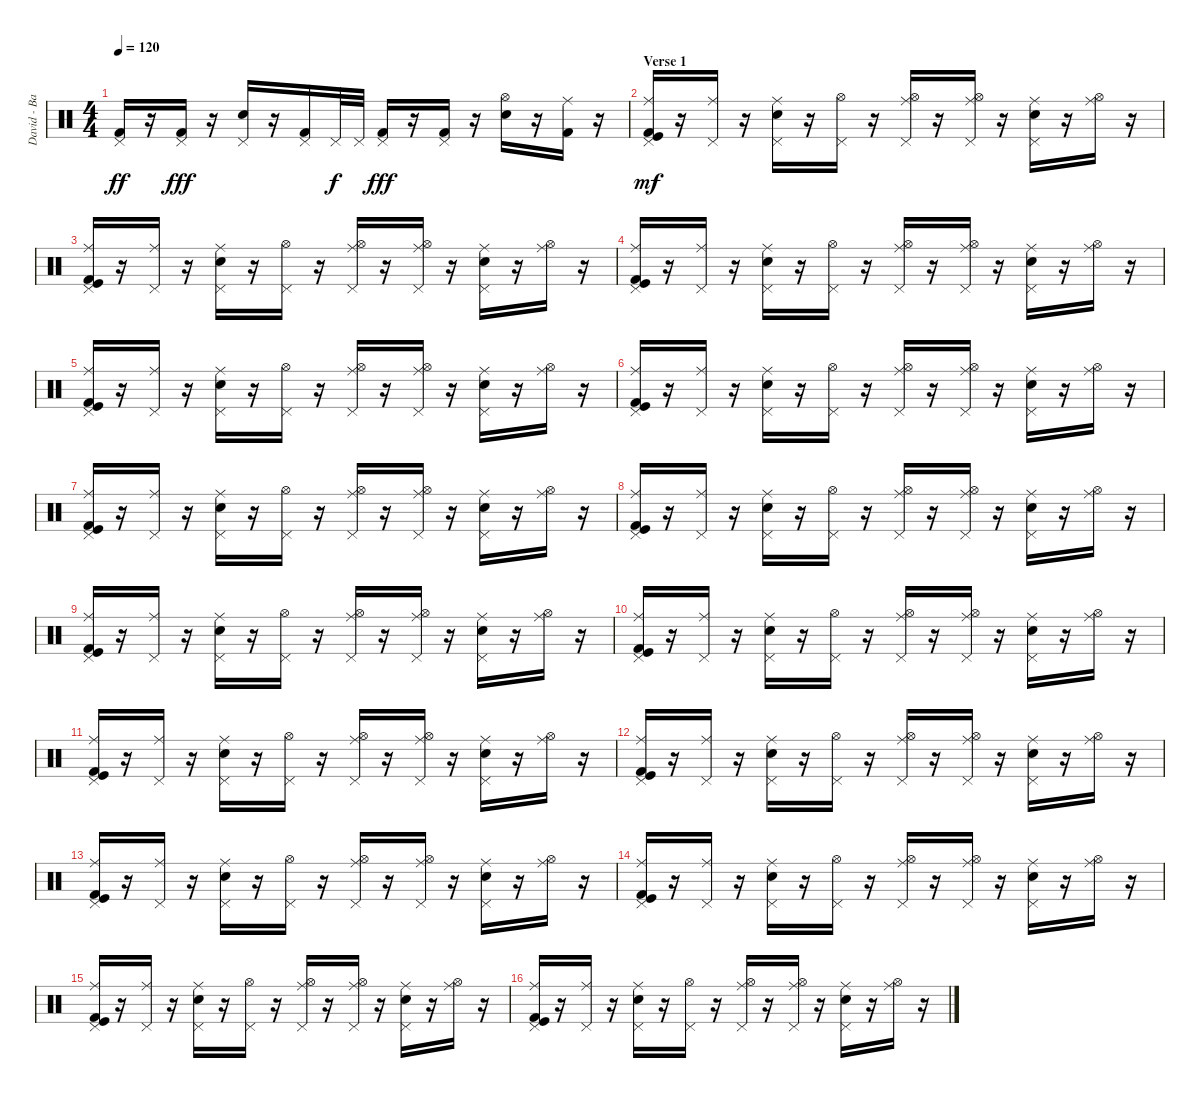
\track ("David - Batterie" "David - Ba") {instrument percussion}
\staff {score}
\articulation defaults
\ts (4 4)
\tempo 120
\clef neutral
\ks c
("Kick (hit) 2" "Pedal Hi-Hat (hit)").16{dy ff} r.16 ("Kick (hit) 2" "Pedal Hi-Hat (hit)").16{dy fff} r.16 ("Electric Snare (hit)" "Pedal Hi-Hat (hit)").16 r.16 ("Kick (hit) 2" "Pedal Hi-Hat (hit)").16 "Pedal Hi-Hat (hit)".32{dy f} "Pedal Hi-Hat (hit)".32 ("Kick (hit) 2" "Pedal Hi-Hat (hit)").16{dy fff} r.16 ("Kick (hit) 2" "Pedal Hi-Hat (hit)").16 r.16 ("Electric Snare (hit)" "Hi-Hat (open)").16 r.16 ("Ride (middle)" "Kick (hit) 2").16 r.16 |
\section ("" "Verse 1")
("Pedal Hi-Hat (hit)" "Ride (middle)" "Kick (hit) 2" "Kick (hit)").16{dy mf} r.16 ("Pedal Hi-Hat (hit)" "Ride (middle)").16 r.16 ("Pedal Hi-Hat (hit)" "Ride (middle)" "Electric Snare (hit)").16 r.16 ("Pedal Hi-Hat (hit)" "Hi-Hat (open)").16 r.16 ("Pedal Hi-Hat (hit)" "Hi-Hat (open)" "Ride (middle)").16 r.16 ("Pedal Hi-Hat (hit)" "Hi-Hat (open)" "Ride (middle)").16 r.16 ("Pedal Hi-Hat (hit)" "Ride (middle)" "Electric Snare (hit)").16 r.16 ("Hi-Hat (open)" "Ride (middle)").16 r.16 |
("Kick (hit)" "Kick (hit) 2" "Ride (middle)" "Pedal Hi-Hat (hit)").16 r.16 ("Ride (middle)" "Pedal Hi-Hat (hit)").16 r.16 ("Electric Snare (hit)" "Ride (middle)" "Pedal Hi-Hat (hit)").16 r.16 ("Hi-Hat (open)" "Pedal Hi-Hat (hit)").16 r.16 ("Ride (middle)" "Hi-Hat (open)" "Pedal Hi-Hat (hit)").16 r.16 ("Ride (middle)" "Hi-Hat (open)" "Pedal Hi-Hat (hit)").16 r.16 ("Electric Snare (hit)" "Ride (middle)" "Pedal Hi-Hat (hit)").16 r.16 ("Ride (middle)" "Hi-Hat (open)").16 r.16 |
("Kick (hit)" "Kick (hit) 2" "Ride (middle)" "Pedal Hi-Hat (hit)").16 r.16 ("Ride (middle)" "Pedal Hi-Hat (hit)").16 r.16 ("Electric Snare (hit)" "Ride (middle)" "Pedal Hi-Hat (hit)").16 r.16 ("Hi-Hat (open)" "Pedal Hi-Hat (hit)").16 r.16 ("Ride (middle)" "Hi-Hat (open)" "Pedal Hi-Hat (hit)").16 r.16 ("Ride (middle)" "Hi-Hat (open)" "Pedal Hi-Hat (hit)").16 r.16 ("Electric Snare (hit)" "Ride (middle)" "Pedal Hi-Hat (hit)").16 r.16 ("Ride (middle)" "Hi-Hat (open)").16 r.16 |
("Pedal Hi-Hat (hit)" "Ride (middle)" "Kick (hit) 2" "Kick (hit)").16 r.16 ("Pedal Hi-Hat (hit)" "Ride (middle)").16 r.16 ("Pedal Hi-Hat (hit)" "Ride (middle)" "Electric Snare (hit)").16 r.16 ("Pedal Hi-Hat (hit)" "Hi-Hat (open)").16 r.16 ("Pedal Hi-Hat (hit)" "Hi-Hat (open)" "Ride (middle)").16 r.16 ("Pedal Hi-Hat (hit)" "Hi-Hat (open)" "Ride (middle)").16 r.16 ("Pedal Hi-Hat (hit)" "Ride (middle)" "Electric Snare (hit)").16 r.16 ("Hi-Hat (open)" "Ride (middle)").16 r.16 |
("Kick (hit)" "Kick (hit) 2" "Ride (middle)" "Pedal Hi-Hat (hit)").16 r.16 ("Ride (middle)" "Pedal Hi-Hat (hit)").16 r.16 ("Electric Snare (hit)" "Ride (middle)" "Pedal Hi-Hat (hit)").16 r.16 ("Hi-Hat (open)" "Pedal Hi-Hat (hit)").16 r.16 ("Ride (middle)" "Hi-Hat (open)" "Pedal Hi-Hat (hit)").16 r.16 ("Ride (middle)" "Hi-Hat (open)" "Pedal Hi-Hat (hit)").16 r.16 ("Electric Snare (hit)" "Ride (middle)" "Pedal Hi-Hat (hit)").16 r.16 ("Ride (middle)" "Hi-Hat (open)").16 r.16 |
("Pedal Hi-Hat (hit)" "Ride (middle)" "Kick (hit) 2" "Kick (hit)").16 r.16 ("Pedal Hi-Hat (hit)" "Ride (middle)").16 r.16 ("Pedal Hi-Hat (hit)" "Ride (middle)" "Electric Snare (hit)").16 r.16 ("Pedal Hi-Hat (hit)" "Hi-Hat (open)").16 r.16 ("Pedal Hi-Hat (hit)" "Hi-Hat (open)" "Ride (middle)").16 r.16 ("Pedal Hi-Hat (hit)" "Hi-Hat (open)" "Ride (middle)").16 r.16 ("Pedal Hi-Hat (hit)" "Ride (middle)" "Electric Snare (hit)").16 r.16 ("Hi-Hat (open)" "Ride (middle)").16 r.16 |
("Pedal Hi-Hat (hit)" "Ride (middle)" "Kick (hit) 2" "Kick (hit)").16 r.16 ("Pedal Hi-Hat (hit)" "Ride (middle)").16 r.16 ("Pedal Hi-Hat (hit)" "Ride (middle)" "Electric Snare (hit)").16 r.16 ("Pedal Hi-Hat (hit)" "Hi-Hat (open)").16 r.16 ("Pedal Hi-Hat (hit)" "Hi-Hat (open)" "Ride (middle)").16 r.16 ("Pedal Hi-Hat (hit)" "Hi-Hat (open)" "Ride (middle)").16 r.16 ("Pedal Hi-Hat (hit)" "Ride (middle)" "Electric Snare (hit)").16 r.16 ("Hi-Hat (open)" "Ride (middle)").16 r.16 |
("Kick (hit)" "Kick (hit) 2" "Ride (middle)" "Pedal Hi-Hat (hit)").16 r.16 ("Ride (middle)" "Pedal Hi-Hat (hit)").16 r.16 ("Electric Snare (hit)" "Ride (middle)" "Pedal Hi-Hat (hit)").16 r.16 ("Hi-Hat (open)" "Pedal Hi-Hat (hit)").16 r.16 ("Ride (middle)" "Hi-Hat (open)" "Pedal Hi-Hat (hit)").16 r.16 ("Ride (middle)" "Hi-Hat (open)" "Pedal Hi-Hat (hit)").16 r.16 ("Electric Snare (hit)" "Ride (middle)" "Pedal Hi-Hat (hit)").16 r.16 ("Ride (middle)" "Hi-Hat (open)").16 r.16 |
("Pedal Hi-Hat (hit)" "Ride (middle)" "Kick (hit) 2" "Kick (hit)").16 r.16 ("Pedal Hi-Hat (hit)" "Ride (middle)").16 r.16 ("Pedal Hi-Hat (hit)" "Ride (middle)" "Electric Snare (hit)").16 r.16 ("Pedal Hi-Hat (hit)" "Hi-Hat (open)").16 r.16 ("Pedal Hi-Hat (hit)" "Hi-Hat (open)" "Ride (middle)").16 r.16 ("Pedal Hi-Hat (hit)" "Hi-Hat (open)" "Ride (middle)").16 r.16 ("Pedal Hi-Hat (hit)" "Ride (middle)" "Electric Snare (hit)").16 r.16 ("Hi-Hat (open)" "Ride (middle)").16 r.16 |
("Kick (hit)" "Kick (hit) 2" "Ride (middle)" "Pedal Hi-Hat (hit)").16 r.16 ("Ride (middle)" "Pedal Hi-Hat (hit)").16 r.16 ("Electric Snare (hit)" "Ride (middle)" "Pedal Hi-Hat (hit)").16 r.16 ("Hi-Hat (open)" "Pedal Hi-Hat (hit)").16 r.16 ("Ride (middle)" "Hi-Hat (open)" "Pedal Hi-Hat (hit)").16 r.16 ("Ride (middle)" "Hi-Hat (open)" "Pedal Hi-Hat (hit)").16 r.16 ("Electric Snare (hit)" "Ride (middle)" "Pedal Hi-Hat (hit)").16 r.16 ("Ride (middle)" "Hi-Hat (open)").16 r.16 |
("Kick (hit)" "Kick (hit) 2" "Ride (middle)" "Pedal Hi-Hat (hit)").16 r.16 ("Ride (middle)" "Pedal Hi-Hat (hit)").16 r.16 ("Electric Snare (hit)" "Ride (middle)" "Pedal Hi-Hat (hit)").16 r.16 ("Hi-Hat (open)" "Pedal Hi-Hat (hit)").16 r.16 ("Ride (middle)" "Hi-Hat (open)" "Pedal Hi-Hat (hit)").16 r.16 ("Ride (middle)" "Hi-Hat (open)" "Pedal Hi-Hat (hit)").16 r.16 ("Electric Snare (hit)" "Ride (middle)" "Pedal Hi-Hat (hit)").16 r.16 ("Ride (middle)" "Hi-Hat (open)").16 r.16 |
("Pedal Hi-Hat (hit)" "Ride (middle)" "Kick (hit) 2" "Kick (hit)").16 r.16 ("Pedal Hi-Hat (hit)" "Ride (middle)").16 r.16 ("Pedal Hi-Hat (hit)" "Ride (middle)" "Electric Snare (hit)").16 r.16 ("Pedal Hi-Hat (hit)" "Hi-Hat (open)").16 r.16 ("Pedal Hi-Hat (hit)" "Hi-Hat (open)" "Ride (middle)").16 r.16 ("Pedal Hi-Hat (hit)" "Hi-Hat (open)" "Ride (middle)").16 r.16 ("Pedal Hi-Hat (hit)" "Ride (middle)" "Electric Snare (hit)").16 r.16 ("Hi-Hat (open)" "Ride (middle)").16 r.16 |
("Kick (hit)" "Kick (hit) 2" "Ride (middle)" "Pedal Hi-Hat (hit)").16 r.16 ("Ride (middle)" "Pedal Hi-Hat (hit)").16 r.16 ("Electric Snare (hit)" "Ride (middle)" "Pedal Hi-Hat (hit)").16 r.16 ("Hi-Hat (open)" "Pedal Hi-Hat (hit)").16 r.16 ("Ride (middle)" "Hi-Hat (open)" "Pedal Hi-Hat (hit)").16 r.16 ("Ride (middle)" "Hi-Hat (open)" "Pedal Hi-Hat (hit)").16 r.16 ("Electric Snare (hit)" "Ride (middle)" "Pedal Hi-Hat (hit)").16 r.16 ("Ride (middle)" "Hi-Hat (open)").16 r.16 |
("Pedal Hi-Hat (hit)" "Ride (middle)" "Kick (hit) 2" "Kick (hit)").16 r.16 ("Pedal Hi-Hat (hit)" "Ride (middle)").16 r.16 ("Pedal Hi-Hat (hit)" "Ride (middle)" "Electric Snare (hit)").16 r.16 ("Pedal Hi-Hat (hit)" "Hi-Hat (open)").16 r.16 ("Pedal Hi-Hat (hit)" "Hi-Hat (open)" "Ride (middle)").16 r.16 ("Pedal Hi-Hat (hit)" "Hi-Hat (open)" "Ride (middle)").16 r.16 ("Pedal Hi-Hat (hit)" "Ride (middle)" "Electric Snare (hit)").16 r.16 ("Hi-Hat (open)" "Ride (middle)").16 r.16 |
("Pedal Hi-Hat (hit)" "Ride (middle)" "Kick (hit) 2" "Kick (hit)").16 r.16 ("Pedal Hi-Hat (hit)" "Ride (middle)").16 r.16 ("Pedal Hi-Hat (hit)" "Ride (middle)" "Electric Snare (hit)").16 r.16 ("Pedal Hi-Hat (hit)" "Hi-Hat (open)").16 r.16 ("Pedal Hi-Hat (hit)" "Hi-Hat (open)" "Ride (middle)").16 r.16 ("Pedal Hi-Hat (hit)" "Hi-Hat (open)" "Ride (middle)").16 r.16 ("Pedal Hi-Hat (hit)" "Ride (middle)" "Electric Snare (hit)").16 r.16 ("Hi-Hat (open)" "Ride (middle)").16 r.16
